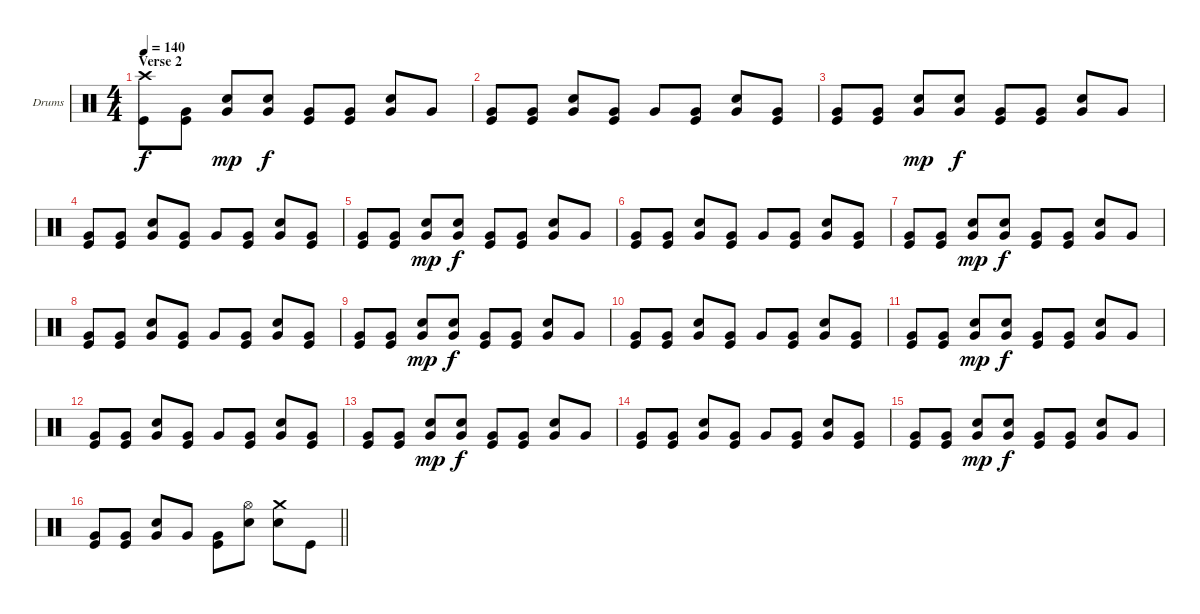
\bracketExtendMode groupsimilarinstruments
\firstSystemTrackNameOrientation horizontal
\otherSystemsTrackNameOrientation horizontal
\track ("Drumkit" "Drums") {instrument percussion}
\staff {score}
\articulation defaults
\ts (4 4)
\section ("" "Verse 2")
\tempo 140
\clef neutral
\ks c
("Crash high (hit)" "Kick (hit)").8{dy f} ("Very Low Tom (hit)" "Kick (hit)").8 ("Very Low Tom (hit)" "Snare (hit) 2").8{dy mp} ("Very Low Tom (hit)" "Snare (hit) 2").8{dy f} ("Very Low Tom (hit)" "Kick (hit)").8 ("Very Low Tom (hit)" "Kick (hit)").8 ("Very Low Tom (hit)" "Snare (hit) 2").8 "Very Low Tom (hit)".8 |
("Very Low Tom (hit)" "Kick (hit)").8 ("Very Low Tom (hit)" "Kick (hit)").8 ("Very Low Tom (hit)" "Snare (hit) 2").8 ("Very Low Tom (hit)" "Kick (hit)").8 "Very Low Tom (hit)".8 ("Very Low Tom (hit)" "Kick (hit)").8 ("Very Low Tom (hit)" "Snare (hit) 2").8 ("Very Low Tom (hit)" "Kick (hit)").8 |
("Very Low Tom (hit)" "Kick (hit)").8 ("Very Low Tom (hit)" "Kick (hit)").8 ("Very Low Tom (hit)" "Snare (hit) 2").8{dy mp} ("Very Low Tom (hit)" "Snare (hit) 2").8{dy f} ("Very Low Tom (hit)" "Kick (hit)").8 ("Very Low Tom (hit)" "Kick (hit)").8 ("Very Low Tom (hit)" "Snare (hit) 2").8 "Very Low Tom (hit)".8 |
("Very Low Tom (hit)" "Kick (hit)").8 ("Very Low Tom (hit)" "Kick (hit)").8 ("Very Low Tom (hit)" "Snare (hit) 2").8 ("Very Low Tom (hit)" "Kick (hit)").8 "Very Low Tom (hit)".8 ("Very Low Tom (hit)" "Kick (hit)").8 ("Very Low Tom (hit)" "Snare (hit) 2").8 ("Very Low Tom (hit)" "Kick (hit)").8 |
("Very Low Tom (hit)" "Kick (hit)").8 ("Very Low Tom (hit)" "Kick (hit)").8 ("Very Low Tom (hit)" "Snare (hit) 2").8{dy mp} ("Very Low Tom (hit)" "Snare (hit) 2").8{dy f} ("Very Low Tom (hit)" "Kick (hit)").8 ("Very Low Tom (hit)" "Kick (hit)").8 ("Very Low Tom (hit)" "Snare (hit) 2").8 "Very Low Tom (hit)".8 |
("Very Low Tom (hit)" "Kick (hit)").8 ("Very Low Tom (hit)" "Kick (hit)").8 ("Very Low Tom (hit)" "Snare (hit) 2").8 ("Very Low Tom (hit)" "Kick (hit)").8 "Very Low Tom (hit)".8 ("Very Low Tom (hit)" "Kick (hit)").8 ("Very Low Tom (hit)" "Snare (hit) 2").8 ("Very Low Tom (hit)" "Kick (hit)").8 |
("Very Low Tom (hit)" "Kick (hit)").8 ("Very Low Tom (hit)" "Kick (hit)").8 ("Very Low Tom (hit)" "Snare (hit) 2").8{dy mp} ("Very Low Tom (hit)" "Snare (hit) 2").8{dy f} ("Very Low Tom (hit)" "Kick (hit)").8 ("Very Low Tom (hit)" "Kick (hit)").8 ("Very Low Tom (hit)" "Snare (hit) 2").8 "Very Low Tom (hit)".8 |
("Very Low Tom (hit)" "Kick (hit)").8 ("Very Low Tom (hit)" "Kick (hit)").8 ("Very Low Tom (hit)" "Snare (hit) 2").8 ("Very Low Tom (hit)" "Kick (hit)").8 "Very Low Tom (hit)".8 ("Very Low Tom (hit)" "Kick (hit)").8 ("Very Low Tom (hit)" "Snare (hit) 2").8 ("Very Low Tom (hit)" "Kick (hit)").8 |
("Very Low Tom (hit)" "Kick (hit)").8 ("Very Low Tom (hit)" "Kick (hit)").8 ("Very Low Tom (hit)" "Snare (hit) 2").8{dy mp} ("Very Low Tom (hit)" "Snare (hit) 2").8{dy f} ("Very Low Tom (hit)" "Kick (hit)").8 ("Very Low Tom (hit)" "Kick (hit)").8 ("Very Low Tom (hit)" "Snare (hit) 2").8 "Very Low Tom (hit)".8 |
("Very Low Tom (hit)" "Kick (hit)").8 ("Very Low Tom (hit)" "Kick (hit)").8 ("Very Low Tom (hit)" "Snare (hit) 2").8 ("Very Low Tom (hit)" "Kick (hit)").8 "Very Low Tom (hit)".8 ("Very Low Tom (hit)" "Kick (hit)").8 ("Very Low Tom (hit)" "Snare (hit) 2").8 ("Very Low Tom (hit)" "Kick (hit)").8 |
("Very Low Tom (hit)" "Kick (hit)").8 ("Very Low Tom (hit)" "Kick (hit)").8 ("Very Low Tom (hit)" "Snare (hit) 2").8{dy mp} ("Very Low Tom (hit)" "Snare (hit) 2").8{dy f} ("Very Low Tom (hit)" "Kick (hit)").8 ("Very Low Tom (hit)" "Kick (hit)").8 ("Very Low Tom (hit)" "Snare (hit) 2").8 "Very Low Tom (hit)".8 |
("Very Low Tom (hit)" "Kick (hit)").8 ("Very Low Tom (hit)" "Kick (hit)").8 ("Very Low Tom (hit)" "Snare (hit) 2").8 ("Very Low Tom (hit)" "Kick (hit)").8 "Very Low Tom (hit)".8 ("Very Low Tom (hit)" "Kick (hit)").8 ("Very Low Tom (hit)" "Snare (hit) 2").8 ("Very Low Tom (hit)" "Kick (hit)").8 |
("Very Low Tom (hit)" "Kick (hit)").8 ("Very Low Tom (hit)" "Kick (hit)").8 ("Very Low Tom (hit)" "Snare (hit) 2").8{dy mp} ("Very Low Tom (hit)" "Snare (hit) 2").8{dy f} ("Very Low Tom (hit)" "Kick (hit)").8 ("Very Low Tom (hit)" "Kick (hit)").8 ("Very Low Tom (hit)" "Snare (hit) 2").8 "Very Low Tom (hit)".8 |
("Very Low Tom (hit)" "Kick (hit)").8 ("Very Low Tom (hit)" "Kick (hit)").8 ("Very Low Tom (hit)" "Snare (hit) 2").8 ("Very Low Tom (hit)" "Kick (hit)").8 "Very Low Tom (hit)".8 ("Very Low Tom (hit)" "Kick (hit)").8 ("Very Low Tom (hit)" "Snare (hit) 2").8 ("Very Low Tom (hit)" "Kick (hit)").8 |
("Very Low Tom (hit)" "Kick (hit)").8 ("Very Low Tom (hit)" "Kick (hit)").8 ("Very Low Tom (hit)" "Snare (hit) 2").8{dy mp} ("Very Low Tom (hit)" "Snare (hit) 2").8{dy f} ("Very Low Tom (hit)" "Kick (hit)").8 ("Very Low Tom (hit)" "Kick (hit)").8 ("Very Low Tom (hit)" "Snare (hit) 2").8 "Very Low Tom (hit)".8 |
\barLineRight lightlight
("Very Low Tom (hit)" "Kick (hit)").8 ("Very Low Tom (hit)" "Kick (hit)").8 ("Very Low Tom (hit)" "Snare (hit) 2").8 "Very Low Tom (hit)".8 ("Very Low Tom (hit)" "Kick (hit)").8 ("Hi-Hat (open)" "Snare (hit) 2").8 ("Crash medium (hit)" "Snare (hit) 2").8 "Kick (hit)".8
